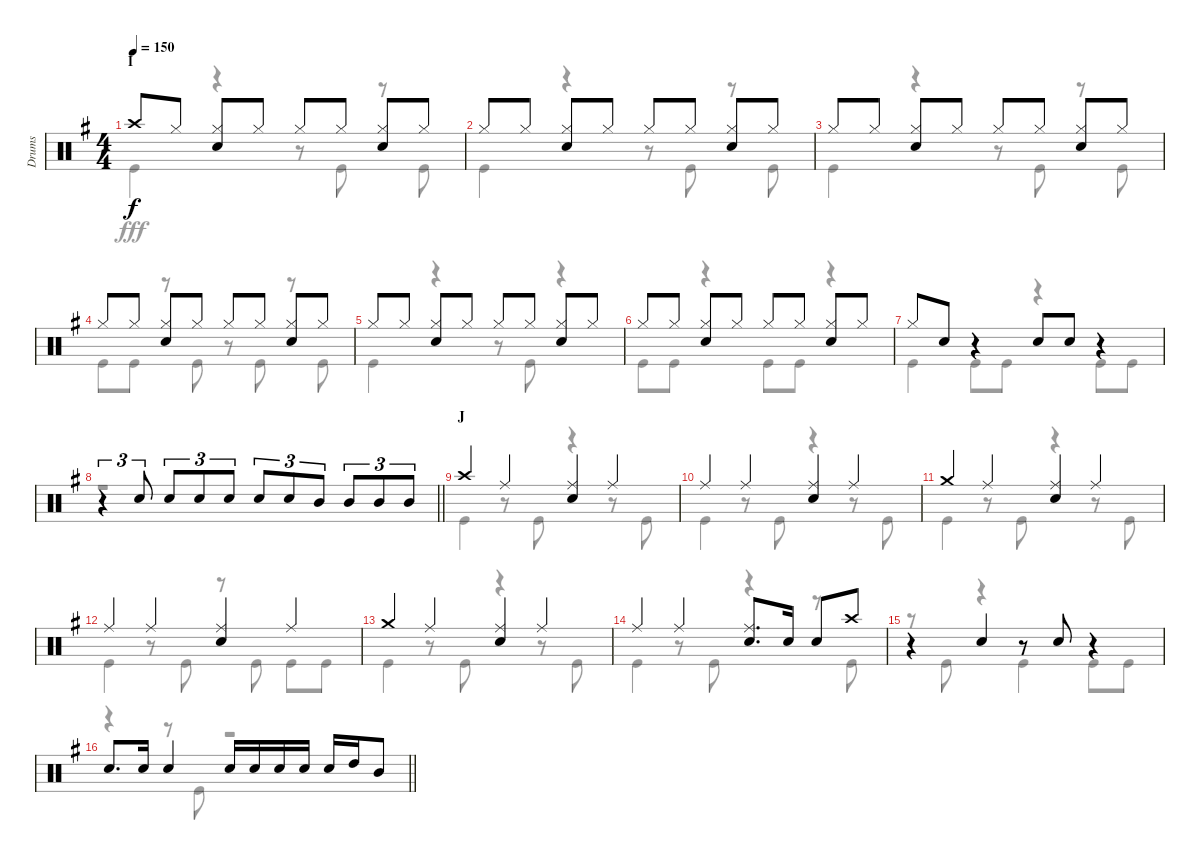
\track ("Drums" "Drums") {instrument percussion}
\staff {score}
\articulation defaults
\voice
\ts (4 4)
\section ("" "I")
\tempo 150
\clef neutral
\ks g "Crash high (hit)".8{dy f} "Hi-Hat (closed)".8
("Hi-Hat (closed)" "Snare (hit) 2").8 "Hi-Hat (closed)".8 "Hi-Hat (closed)".8 "Hi-Hat (closed)".8 ("Hi-Hat (closed)" "Snare (hit) 2").8 "Hi-Hat (closed)".8 |
"Hi-Hat (closed)".8 "Hi-Hat (closed)".8 ("Hi-Hat (closed)" "Snare (hit) 2").8 "Hi-Hat (closed)".8 "Hi-Hat (closed)".8 "Hi-Hat (closed)".8 ("Hi-Hat (closed)" "Snare (hit) 2").8 "Hi-Hat (closed)".8 |
"Hi-Hat (closed)".8 "Hi-Hat (closed)".8 ("Hi-Hat (closed)" "Snare (hit) 2").8 "Hi-Hat (closed)".8 "Hi-Hat (closed)".8 "Hi-Hat (closed)".8 ("Hi-Hat (closed)" "Snare (hit) 2").8 "Hi-Hat (closed)".8 |
"Hi-Hat (closed)".8 "Hi-Hat (closed)".8 ("Hi-Hat (closed)" "Snare (hit) 2").8 "Hi-Hat (closed)".8 "Hi-Hat (closed)".8 "Hi-Hat (closed)".8 ("Hi-Hat (closed)" "Snare (hit) 2").8 "Hi-Hat (closed)".8 |
"Hi-Hat (closed)".8 "Hi-Hat (closed)".8 ("Hi-Hat (closed)" "Snare (hit) 2").8 "Hi-Hat (closed)".8 "Hi-Hat (closed)".8 "Hi-Hat (closed)".8 ("Hi-Hat (closed)" "Snare (hit) 2").8 "Hi-Hat (closed)".8 |
"Hi-Hat (closed)".8 "Hi-Hat (closed)".8 ("Hi-Hat (closed)" "Snare (hit) 2").8 "Hi-Hat (closed)".8 "Hi-Hat (closed)".8 "Hi-Hat (closed)".8 ("Hi-Hat (closed)" "Snare (hit) 2").8 "Hi-Hat (closed)".8 |
"Hi-Hat (closed)".8 "Snare (hit) 2".8 r.4 "Snare (hit) 2".8 "Snare (hit) 2".8 r.4 |
\barLineRight lightlight
r.4{tu (3 2)} "Snare (hit) 2".8{tu (3 2)} "Snare (hit) 2".8{tu (3 2)} "Snare (hit) 2".8{tu (3 2)} "Snare (hit) 2".8{tu (3 2)} "Snare (hit) 2".8{tu (3 2)} "Snare (hit) 2".8{tu (3 2)} "Mid Tom (hit)".8{tu (3 2)} "Mid Tom (hit)".8{tu (3 2)} "Mid Tom (hit)".8{tu (3 2)} "Mid Tom (hit)".8{tu (3 2)} |
\section ("" "J")
"Crash high (hit)".4 "Ride (middle)".4 ("Ride (middle)" "Snare (hit) 2").4 "Ride (middle)".4 |
"Ride (middle)".4 "Ride (middle)".4 ("Ride (middle)" "Snare (hit) 2").4 "Ride (middle)".4 |
"Crash medium (hit)".4 "Ride (middle)".4 ("Ride (middle)" "Snare (hit) 2").4 "Ride (middle)".4 |
"Ride (middle)".4 "Ride (middle)".4 ("Ride (middle)" "Snare (hit) 2").4 "Ride (middle)".4 |
"Crash medium (hit)".4 "Ride (middle)".4 ("Ride (middle)" "Snare (hit) 2").4 "Ride (middle)".4 |
"Ride (middle)".4 "Ride (middle)".4 ("Ride (middle)" "Snare (hit) 2").8{d} "Snare (hit) 2".16 "Snare (hit) 2".8 "Crash high (hit)".8 |
r.4 "Snare (hit) 2".4 r.8 "Snare (hit) 2".8 r.4 |
\barLineRight lightlight "Snare (hit) 2".8{d} "Snare (hit) 2".16 "Snare (hit) 2".4 "Snare (hit) 2".16 "Snare (hit) 2".16 "Snare (hit) 2".16 "Snare (hit) 2".16 "Snare (hit) 2".16 "High Tom (hit)".16 "Mid Tom (hit)".8
\voice
\clef neutral
\ottava regular
\simile none
\ks g "Kick (hit)".4{dy fff}
r.4 r.8 "Kick (hit)".8 r.8 "Kick (hit)".8 |
"Kick (hit)".4 r.4 r.8 "Kick (hit)".8 r.8 "Kick (hit)".8 |
"Kick (hit)".4 r.4 r.8 "Kick (hit)".8 r.8 "Kick (hit)".8 |
"Kick (hit)".8 "Kick (hit)".8 r.8 "Kick (hit)".8 r.8 "Kick (hit)".8 r.8 "Kick (hit)".8 |
"Kick (hit)".4 r.4 r.8 "Kick (hit)".8 r.4 |
"Kick (hit)".8 "Kick (hit)".8 r.4 "Kick (hit)".8 "Kick (hit)".8 r.4 |
"Kick (hit)".4 "Kick (hit)".8 "Kick (hit)".8 r.4 "Kick (hit)".8 "Kick (hit)".8 |
\barLineRight lightlight
r.1 |
"Kick (hit)".4 r.8 "Kick (hit)".8 r.4 r.8 "Kick (hit)".8 |
"Kick (hit)".4 r.8 "Kick (hit)".8 r.4 r.8 "Kick (hit)".8 |
"Kick (hit)".4 r.8 "Kick (hit)".8 r.4 r.8 "Kick (hit)".8 |
"Kick (hit)".4 r.8 "Kick (hit)".8 r.8 "Kick (hit)".8 "Kick (hit)".8 "Kick (hit)".8 |
"Kick (hit)".4 r.8 "Kick (hit)".8 r.4 r.8 "Kick (hit)".8 |
"Kick (hit)".4 r.8 "Kick (hit)".8 r.4 r.8 "Kick (hit)".8 |
r.8 "Kick (hit)".8 r.4 "Kick (hit)".4 "Kick (hit)".8 "Kick (hit)".8 |
\barLineRight lightlight
r.4 r.8 "Kick (hit)".8 r.2
